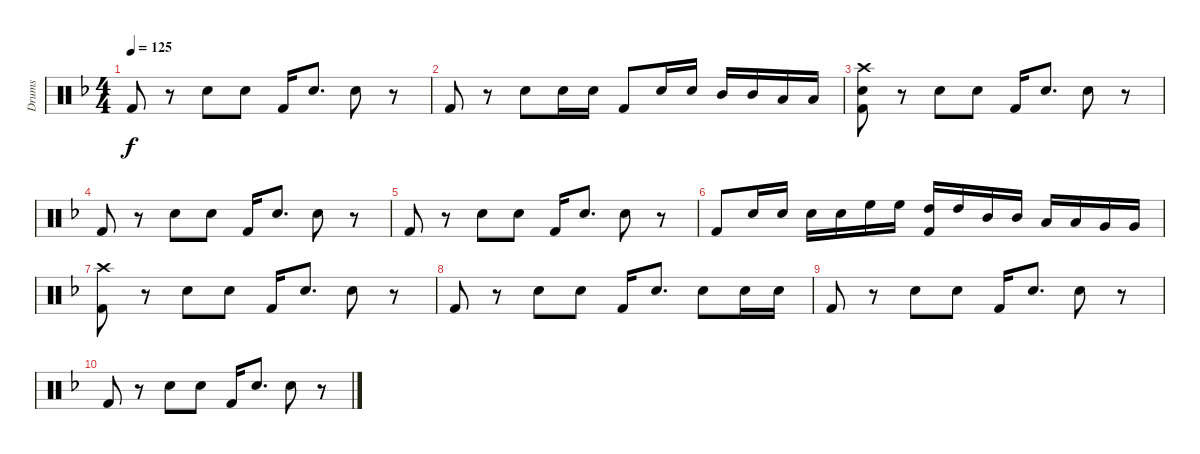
\track ("Drums" "Drums") {instrument percussion}
\staff {score}
\articulation defaults
\ts (4 4)
\tempo 125
\clef neutral
\ks f "Kick (hit) 2".8{dy f}
r.8 "Electric Snare (hit)".8 "Electric Snare (hit)".8 "Kick (hit) 2".16 "Electric Snare (hit)".8{d} "Electric Snare (hit)".8 r.8 |
"Kick (hit) 2".8 r.8 "Electric Snare (hit)".8 "Electric Snare (hit)".16 "Electric Snare (hit)".16 "Kick (hit) 2".8 "Electric Snare (hit)".16 "Electric Snare (hit)".16 "Mid Tom (hit)".16 "Mid Tom (hit)".16 "Low Tom (hit)".16 "Low Tom (hit)".16 |
("Crash high (hit)" "Electric Snare (hit)" "Kick (hit) 2").8 r.8 "Electric Snare (hit)".8 "Electric Snare (hit)".8 "Kick (hit) 2".16 "Electric Snare (hit)".8{d} "Electric Snare (hit)".8 r.8 |
"Kick (hit) 2".8 r.8 "Electric Snare (hit)".8 "Electric Snare (hit)".8 "Kick (hit) 2".16 "Electric Snare (hit)".8{d} "Electric Snare (hit)".8 r.8 |
"Kick (hit) 2".8 r.8 "Electric Snare (hit)".8 "Electric Snare (hit)".8 "Kick (hit) 2".16 "Electric Snare (hit)".8{d} "Electric Snare (hit)".8 r.8 |
"Kick (hit) 2".8 "Electric Snare (hit)".16 "Electric Snare (hit)".16 "Electric Snare (hit)".16 "Electric Snare (hit)".16 "High Floor Tom (hit)".16 "High Floor Tom (hit)".16 ("High Tom (hit)" "Kick (hit) 2").16 "High Tom (hit)".16 "Mid Tom (hit)".16 "Mid Tom (hit)".16 "Low Tom (hit)".16 "Low Tom (hit)".16 "Very Low Tom (hit)".16 "Very Low Tom (hit)".16 |
("Crash high (hit)" "Kick (hit) 2").8 r.8 "Electric Snare (hit)".8 "Electric Snare (hit)".8 "Kick (hit) 2".16 "Electric Snare (hit)".8{d} "Electric Snare (hit)".8 r.8 |
"Kick (hit) 2".8 r.8 "Electric Snare (hit)".8 "Electric Snare (hit)".8 "Kick (hit) 2".16 "Electric Snare (hit)".8{d} "Electric Snare (hit)".8 "Electric Snare (hit)".16 "Electric Snare (hit)".16 |
"Kick (hit) 2".8 r.8 "Electric Snare (hit)".8 "Electric Snare (hit)".8 "Kick (hit) 2".16 "Electric Snare (hit)".8{d} "Electric Snare (hit)".8 r.8 |
"Kick (hit) 2".8 r.8 "Electric Snare (hit)".8 "Electric Snare (hit)".8 "Kick (hit) 2".16 "Electric Snare (hit)".8{d} "Electric Snare (hit)".8 r.8
